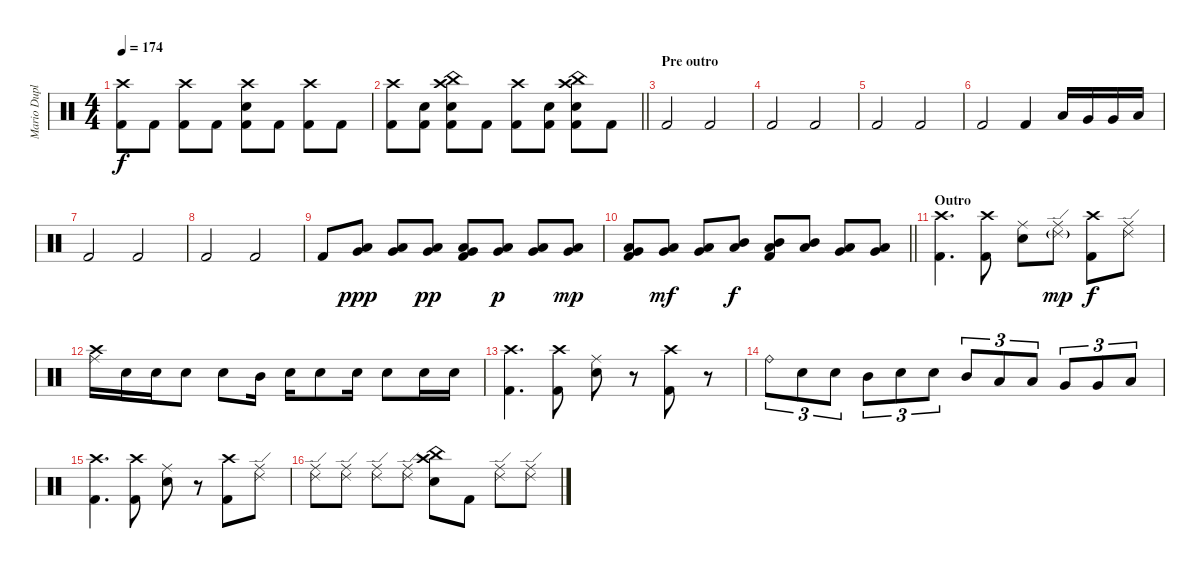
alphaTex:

\track ("Mario Duplantier - DRUMS" "Mario Dupl") {instrument percussion}
\staff {score}
\articulation defaults
\ts (4 4)
\tempo 174
\clef neutral
\ks c
("Crash high (hit)" "Kick (hit) 2").8{dy f} "Kick (hit) 2".8 ("Crash high (hit)" "Kick (hit) 2").8 "Kick (hit) 2".8 ("Crash high (hit)" "Electric Snare (hit)" "Kick (hit) 2").8 "Kick (hit) 2".8 ("Crash high (hit)" "Kick (hit) 2").8 "Kick (hit) 2".8 |
\barLineRight lightlight
("Crash high (hit)" "Kick (hit) 2").8 ("Electric Snare (hit)" "Kick (hit) 2").8 ("Crash high (hit)" "China (hit)" "Electric Snare (hit)" "Kick (hit) 2").8 "Kick (hit) 2".8 ("Crash high (hit)" "Kick (hit) 2").8 ("Electric Snare (hit)" "Kick (hit) 2").8 ("China (hit)" "Crash high (hit)" "Electric Snare (hit)" "Kick (hit) 2").8 "Kick (hit) 2".8 |
\section ("" "Pre outro")
"Kick (hit) 2".2 "Kick (hit) 2".2 |
"Kick (hit) 2".2 "Kick (hit) 2".2 |
"Kick (hit) 2".2 "Kick (hit) 2".2 |
"Kick (hit) 2".2 "Kick (hit) 2".4 "Low Tom (hit)".16 "Very Low Tom (hit)".16 "Very Low Tom (hit)".16 "Low Floor Tom (hit)".16 |
"Kick (hit) 2".2 "Kick (hit) 2".2 |
"Kick (hit) 2".2 "Kick (hit) 2".2 |
"Kick (hit) 2".8 ("Very Low Tom (hit)" "Low Tom (hit)").8{dy ppp} ("Very Low Tom (hit)" "Low Tom (hit)").8 ("Very Low Tom (hit)" "Low Tom (hit)").8{dy pp} ("Very Low Tom (hit)" "Low Tom (hit)" "Kick (hit) 2").8 ("Very Low Tom (hit)" "Low Tom (hit)").8{dy p} ("Very Low Tom (hit)" "Low Tom (hit)").8 ("Very Low Tom (hit)" "Low Tom (hit)").8{dy mp} |
\barLineRight lightlight
("Very Low Tom (hit)" "Low Tom (hit)" "Kick (hit) 2").8 ("Very Low Tom (hit)" "Low Tom (hit)").8{dy mf} ("Very Low Tom (hit)" "Low Tom (hit)").8 ("Mid Tom (hit)" "Low Tom (hit)").8{dy f} ("Mid Tom (hit)" "Low Tom (hit)" "Kick (hit) 2").8 ("Mid Tom (hit)" "Low Tom (hit)").8 ("Very Low Tom (hit)" "Low Tom (hit)").8 ("Low Floor Tom (hit)" "Very Low Tom (hit)").8 |
\section ("" "Outro")
("Crash high (hit)" "Kick (hit) 2").4{d} ("Crash high (hit)" "Kick (hit) 2").8 ("Ride (middle)" "Electric Snare (hit)").8 ("Ride (middle)" "Ride (edge) 2"{g}).8{dy mp} ("Crash high (hit)" "Kick (hit) 2").8{dy f} ("Ride (middle)" "Ride (edge) 2").8 |
("Ride (middle)" "Crash high (hit)").16 "Electric Snare (hit)".16 "Electric Snare (hit)".16 "Electric Snare (hit)".8 "Electric Snare (hit)".8 "Mid Tom (hit)".16 "Electric Snare (hit)".16 "Electric Snare (hit)".8 "Electric Snare (hit)".16 "Electric Snare (hit)".8 "Electric Snare (hit)".16 "Electric Snare (hit)".16 |
("Crash high (hit)" "Kick (hit) 2").4{d} ("Crash high (hit)" "Kick (hit) 2").8 ("Ride (middle)" "Electric Snare (hit)").8 r.8 ("Crash high (hit)" "Kick (hit) 2").8 r.8 |
"Ride (bell)".8{tu (3 2)} "Electric Snare (hit)".8{tu (3 2)} "Electric Snare (hit)".8{tu (3 2)} "Mid Tom (hit)".8{tu (3 2)} "Electric Snare (hit)".8{tu (3 2)} "Electric Snare (hit)".8{tu (3 2)} "Mid Tom (hit)".8{tu (3 2)} "Low Tom (hit)".8{tu (3 2)} "Low Tom (hit)".8{tu (3 2)} "Very Low Tom (hit)".8{tu (3 2)} "Very Low Tom (hit)".8{tu (3 2)} "Low Floor Tom (hit)".8{tu (3 2)} |
("Crash high (hit)" "Kick (hit) 2").4{d} ("Crash high (hit)" "Kick (hit) 2").8 ("Ride (middle)" "Electric Snare (hit)").8 r.8 ("Crash high (hit)" "Kick (hit) 2").8 ("Ride (middle)" "Ride (edge) 2").8 |
("Ride (middle)" "Ride (edge) 2").8 ("Ride (middle)" "Ride (edge) 2").8 ("Ride (middle)" "Ride (edge) 2").8 ("Ride (middle)" "Ride (edge) 2").8 ("Crash high (hit)" "China (hit)" "Electric Snare (hit)").8 "Kick (hit) 2".8 ("Ride (middle)" "Ride (edge) 2").8 ("Ride (middle)" "Ride (edge) 2").8
